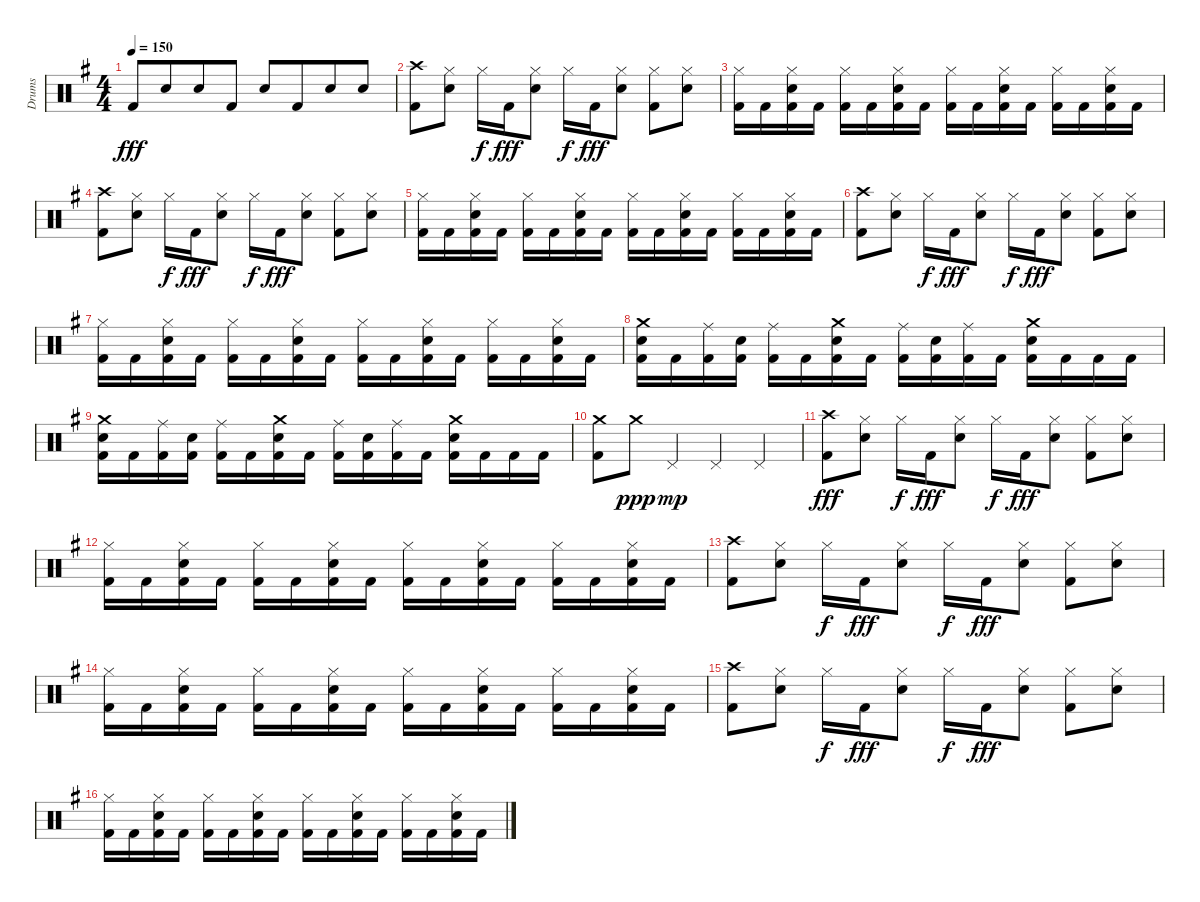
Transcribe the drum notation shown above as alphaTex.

\track ("Drums" "Drums") {instrument percussion}
\staff {score}
\articulation defaults
\ts (4 4)
\tempo 150
\clef neutral
\ks eminor "Kick (hit) 2".8{dy fff} "Snare (hit) 2".8{beam merge} "Snare (hit) 2".8 "Kick (hit) 2".8 "Snare (hit) 2".8 "Kick (hit) 2".8{beam merge} "Snare (hit) 2".8 "Snare (hit) 2".8
|
("Crash high (hit)" "Kick (hit) 2").8 ("Hi-Hat (closed)" "Snare (hit) 2").8 "Hi-Hat (closed)".16{dy f} "Kick (hit) 2".16{dy fff} ("Hi-Hat (closed)" "Snare (hit) 2").8 "Hi-Hat (closed)".16{dy f} "Kick (hit) 2".16{dy fff} ("Hi-Hat (closed)" "Snare (hit) 2").8 ("Hi-Hat (closed)" "Kick (hit) 2").8 ("Hi-Hat (closed)" "Snare (hit) 2").8 |
("Hi-Hat (closed)" "Kick (hit) 2").16 "Kick (hit) 2".16 ("Hi-Hat (closed)" "Snare (hit) 2" "Kick (hit) 2").16 "Kick (hit) 2".16 ("Hi-Hat (closed)" "Kick (hit) 2").16 "Kick (hit) 2".16 ("Hi-Hat (closed)" "Snare (hit) 2" "Kick (hit) 2").16 "Kick (hit) 2".16 ("Hi-Hat (closed)" "Kick (hit) 2").16 "Kick (hit) 2".16 ("Hi-Hat (closed)" "Snare (hit) 2" "Kick (hit) 2").16 "Kick (hit) 2".16 ("Hi-Hat (closed)" "Kick (hit) 2").16 "Kick (hit) 2".16 ("Hi-Hat (closed)" "Snare (hit) 2" "Kick (hit) 2").16 "Kick (hit) 2".16 |
("Crash high (hit)" "Kick (hit) 2").8 ("Hi-Hat (closed)" "Snare (hit) 2").8 "Hi-Hat (closed)".16{dy f} "Kick (hit) 2".16{dy fff} ("Hi-Hat (closed)" "Snare (hit) 2").8 "Hi-Hat (closed)".16{dy f} "Kick (hit) 2".16{dy fff} ("Hi-Hat (closed)" "Snare (hit) 2").8 ("Hi-Hat (closed)" "Kick (hit) 2").8 ("Hi-Hat (closed)" "Snare (hit) 2").8 |
("Hi-Hat (closed)" "Kick (hit) 2").16 "Kick (hit) 2".16 ("Hi-Hat (closed)" "Snare (hit) 2" "Kick (hit) 2").16 "Kick (hit) 2".16 ("Hi-Hat (closed)" "Kick (hit) 2").16 "Kick (hit) 2".16 ("Hi-Hat (closed)" "Snare (hit) 2" "Kick (hit) 2").16 "Kick (hit) 2".16 ("Hi-Hat (closed)" "Kick (hit) 2").16 "Kick (hit) 2".16 ("Hi-Hat (closed)" "Snare (hit) 2" "Kick (hit) 2").16 "Kick (hit) 2".16 ("Hi-Hat (closed)" "Kick (hit) 2").16 "Kick (hit) 2".16 ("Hi-Hat (closed)" "Snare (hit) 2" "Kick (hit) 2").16 "Kick (hit) 2".16 |
("Crash high (hit)" "Kick (hit) 2").8 ("Hi-Hat (closed)" "Snare (hit) 2").8 "Hi-Hat (closed)".16{dy f} "Kick (hit) 2".16{dy fff} ("Hi-Hat (closed)" "Snare (hit) 2").8 "Hi-Hat (closed)".16{dy f} "Kick (hit) 2".16{dy fff} ("Hi-Hat (closed)" "Snare (hit) 2").8 ("Hi-Hat (closed)" "Kick (hit) 2").8 ("Hi-Hat (closed)" "Snare (hit) 2").8 |
("Hi-Hat (closed)" "Kick (hit) 2").16 "Kick (hit) 2".16 ("Hi-Hat (closed)" "Snare (hit) 2" "Kick (hit) 2").16 "Kick (hit) 2".16 ("Hi-Hat (closed)" "Kick (hit) 2").16 "Kick (hit) 2".16 ("Hi-Hat (closed)" "Snare (hit) 2" "Kick (hit) 2").16 "Kick (hit) 2".16 ("Hi-Hat (closed)" "Kick (hit) 2").16 "Kick (hit) 2".16 ("Hi-Hat (closed)" "Snare (hit) 2" "Kick (hit) 2").16 "Kick (hit) 2".16 ("Hi-Hat (closed)" "Kick (hit) 2").16 "Kick (hit) 2".16 ("Hi-Hat (closed)" "Snare (hit) 2" "Kick (hit) 2").16 "Kick (hit) 2".16 |
("Crash medium (hit)" "Snare (hit) 2" "Kick (hit) 2").16 "Kick (hit) 2".16 ("Ride (middle)" "Kick (hit) 2").16 ("Snare (hit) 2" "Kick (hit) 2").16 ("Ride (middle)" "Kick (hit) 2").16 "Kick (hit) 2".16 ("Crash medium (hit)" "Snare (hit) 2" "Kick (hit) 2").16 "Kick (hit) 2".16 ("Ride (middle)" "Kick (hit) 2").16 ("Snare (hit) 2" "Kick (hit) 2").16 ("Ride (middle)" "Kick (hit) 2").16 "Kick (hit) 2".16 ("Crash medium (hit)" "Snare (hit) 2" "Kick (hit) 2").16 "Kick (hit) 2".16 "Kick (hit) 2".16 "Kick (hit) 2".16 |
("Crash medium (hit)" "Snare (hit) 2" "Kick (hit) 2").16 "Kick (hit) 2".16 ("Ride (middle)" "Kick (hit) 2").16 ("Snare (hit) 2" "Kick (hit) 2").16 ("Ride (middle)" "Kick (hit) 2").16 "Kick (hit) 2".16 ("Crash medium (hit)" "Snare (hit) 2" "Kick (hit) 2").16 "Kick (hit) 2".16 ("Ride (middle)" "Kick (hit) 2").16 ("Snare (hit) 2" "Kick (hit) 2").16 ("Ride (middle)" "Kick (hit) 2").16 "Kick (hit) 2".16 ("Crash medium (hit)" "Snare (hit) 2" "Kick (hit) 2").16 "Kick (hit) 2".16 "Kick (hit) 2".16 "Kick (hit) 2".16 |
("Crash medium (hit)" "Kick (hit) 2").8 "Crash medium (hit)".8{dy ppp} "Pedal Hi-Hat (hit)".4{dy mp} "Pedal Hi-Hat (hit)".4 "Pedal Hi-Hat (hit)".4 |
("Crash high (hit)" "Kick (hit) 2").8{dy fff} ("Hi-Hat (closed)" "Snare (hit) 2").8 "Hi-Hat (closed)".16{dy f} "Kick (hit) 2".16{dy fff} ("Hi-Hat (closed)" "Snare (hit) 2").8 "Hi-Hat (closed)".16{dy f} "Kick (hit) 2".16{dy fff} ("Hi-Hat (closed)" "Snare (hit) 2").8 ("Hi-Hat (closed)" "Kick (hit) 2").8 ("Hi-Hat (closed)" "Snare (hit) 2").8 |
("Hi-Hat (closed)" "Kick (hit) 2").16 "Kick (hit) 2".16 ("Hi-Hat (closed)" "Snare (hit) 2" "Kick (hit) 2").16 "Kick (hit) 2".16 ("Hi-Hat (closed)" "Kick (hit) 2").16 "Kick (hit) 2".16 ("Hi-Hat (closed)" "Snare (hit) 2" "Kick (hit) 2").16 "Kick (hit) 2".16 ("Hi-Hat (closed)" "Kick (hit) 2").16 "Kick (hit) 2".16 ("Hi-Hat (closed)" "Snare (hit) 2" "Kick (hit) 2").16 "Kick (hit) 2".16 ("Hi-Hat (closed)" "Kick (hit) 2").16 "Kick (hit) 2".16 ("Hi-Hat (closed)" "Snare (hit) 2" "Kick (hit) 2").16 "Kick (hit) 2".16 |
("Crash high (hit)" "Kick (hit) 2").8 ("Hi-Hat (closed)" "Snare (hit) 2").8 "Hi-Hat (closed)".16{dy f} "Kick (hit) 2".16{dy fff} ("Hi-Hat (closed)" "Snare (hit) 2").8 "Hi-Hat (closed)".16{dy f} "Kick (hit) 2".16{dy fff} ("Hi-Hat (closed)" "Snare (hit) 2").8 ("Hi-Hat (closed)" "Kick (hit) 2").8 ("Hi-Hat (closed)" "Snare (hit) 2").8 |
("Hi-Hat (closed)" "Kick (hit) 2").16 "Kick (hit) 2".16 ("Hi-Hat (closed)" "Snare (hit) 2" "Kick (hit) 2").16 "Kick (hit) 2".16 ("Hi-Hat (closed)" "Kick (hit) 2").16 "Kick (hit) 2".16 ("Hi-Hat (closed)" "Snare (hit) 2" "Kick (hit) 2").16 "Kick (hit) 2".16 ("Hi-Hat (closed)" "Kick (hit) 2").16 "Kick (hit) 2".16 ("Hi-Hat (closed)" "Snare (hit) 2" "Kick (hit) 2").16 "Kick (hit) 2".16 ("Hi-Hat (closed)" "Kick (hit) 2").16 "Kick (hit) 2".16 ("Hi-Hat (closed)" "Snare (hit) 2" "Kick (hit) 2").16 "Kick (hit) 2".16 |
("Crash high (hit)" "Kick (hit) 2").8 ("Hi-Hat (closed)" "Snare (hit) 2").8 "Hi-Hat (closed)".16{dy f} "Kick (hit) 2".16{dy fff} ("Hi-Hat (closed)" "Snare (hit) 2").8 "Hi-Hat (closed)".16{dy f} "Kick (hit) 2".16{dy fff} ("Hi-Hat (closed)" "Snare (hit) 2").8 ("Hi-Hat (closed)" "Kick (hit) 2").8 ("Hi-Hat (closed)" "Snare (hit) 2").8 |
("Hi-Hat (closed)" "Kick (hit) 2").16 "Kick (hit) 2".16 ("Hi-Hat (closed)" "Snare (hit) 2" "Kick (hit) 2").16 "Kick (hit) 2".16 ("Hi-Hat (closed)" "Kick (hit) 2").16 "Kick (hit) 2".16 ("Hi-Hat (closed)" "Snare (hit) 2" "Kick (hit) 2").16 "Kick (hit) 2".16 ("Hi-Hat (closed)" "Kick (hit) 2").16 "Kick (hit) 2".16 ("Hi-Hat (closed)" "Snare (hit) 2" "Kick (hit) 2").16 "Kick (hit) 2".16 ("Hi-Hat (closed)" "Kick (hit) 2").16 "Kick (hit) 2".16 ("Hi-Hat (closed)" "Snare (hit) 2" "Kick (hit) 2").16 "Kick (hit) 2".16
